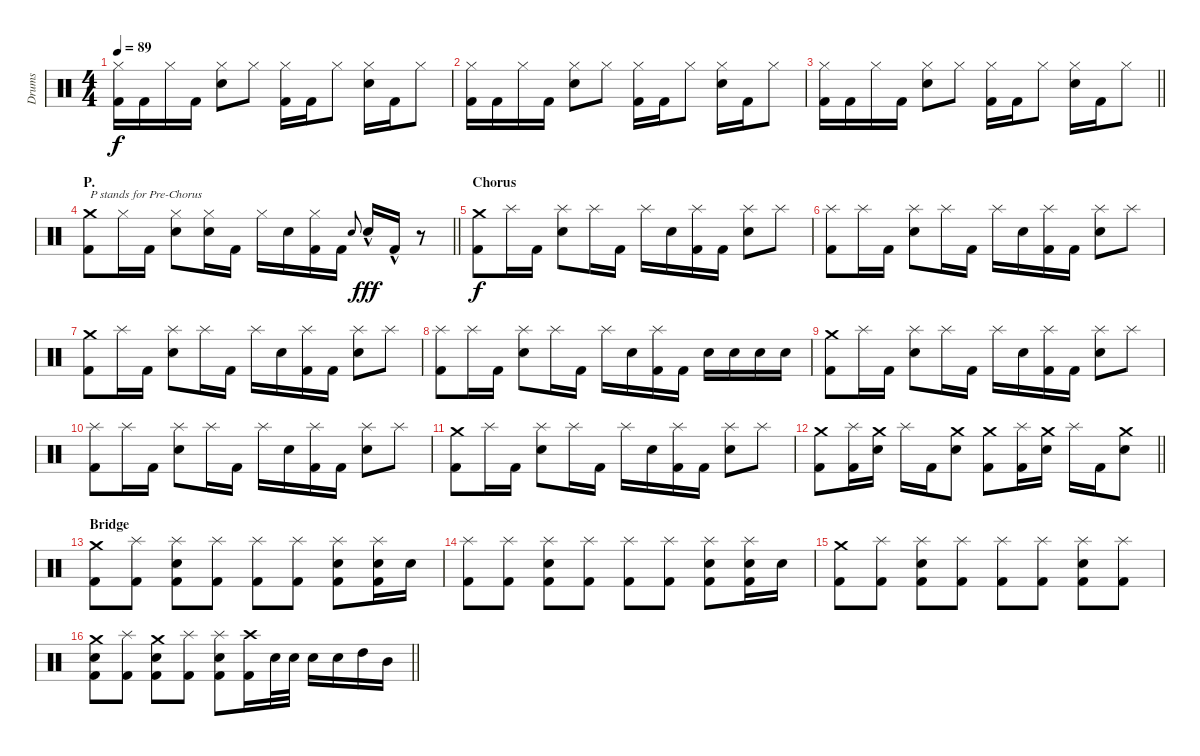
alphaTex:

\track ("Drums" "Drums") {instrument percussion}
\staff {score}
\articulation defaults
\ts (4 4)
\tempo 89
\clef neutral
\ks c
("Hi-Hat (closed)" "Kick (hit) 2").16{dy f} "Kick (hit) 2".16 "Hi-Hat (closed)".16 "Kick (hit) 2".16 ("Hi-Hat (closed)" "Electric Snare (hit)").8 "Hi-Hat (closed)".8 ("Hi-Hat (closed)" "Kick (hit) 2").16 "Kick (hit) 2".16 "Hi-Hat (closed)".8 ("Hi-Hat (closed)" "Electric Snare (hit)").16 "Kick (hit) 2".16 "Hi-Hat (closed)".8 |
("Hi-Hat (closed)" "Kick (hit) 2").16 "Kick (hit) 2".16 "Hi-Hat (closed)".16 "Kick (hit) 2".16 ("Hi-Hat (closed)" "Electric Snare (hit)").8 "Hi-Hat (closed)".8 ("Hi-Hat (closed)" "Kick (hit) 2").16 "Kick (hit) 2".16 "Hi-Hat (closed)".8 ("Hi-Hat (closed)" "Electric Snare (hit)").16 "Kick (hit) 2".16 "Hi-Hat (closed)".8 |
\barLineRight lightlight
("Hi-Hat (closed)" "Kick (hit) 2").16 "Kick (hit) 2".16 "Hi-Hat (closed)".16 "Kick (hit) 2".16 ("Hi-Hat (closed)" "Electric Snare (hit)").8 "Hi-Hat (closed)".8 ("Hi-Hat (closed)" "Kick (hit) 2").16 "Kick (hit) 2".16 "Hi-Hat (closed)".8 ("Hi-Hat (closed)" "Electric Snare (hit)").16 "Kick (hit) 2".16 "Hi-Hat (closed)".8 |
\section ("" "P.")
\barLineRight lightlight
("Crash medium (hit)" "Kick (hit) 2").8{txt "P stands for Pre-Chorus"} "Hi-Hat (closed)".16 "Kick (hit) 2".16 ("Hi-Hat (closed)" "Electric Snare (hit)").8 ("Hi-Hat (closed)" "Electric Snare (hit)").16 "Kick (hit) 2".16 "Hi-Hat (closed)".16 "Electric Snare (hit)".16 ("Hi-Hat (closed)" "Kick (hit) 2").16 "Kick (hit) 2".16 "Electric Snare (hit)".8{gr onbeat} "Electric Snare (hit)"{hac}.16{dy fff} "Kick (hit) 2"{hac}.16 r.8 |
\section ("" "Chorus")
("Crash medium (hit)" "Kick (hit) 2").8{dy f} "Splash (hit)".16 "Kick (hit) 2".16 ("Splash (hit)" "Electric Snare (hit)").8 "Splash (hit)".16 "Kick (hit) 2".16 "Splash (hit)".16 "Electric Snare (hit)".16 ("Splash (hit)" "Kick (hit) 2").16 "Kick (hit) 2".16 ("Splash (hit)" "Electric Snare (hit)").8 "Splash (hit)".8 |
("Splash (hit)" "Kick (hit) 2").8 "Splash (hit)".16 "Kick (hit) 2".16 ("Splash (hit)" "Electric Snare (hit)").8 "Splash (hit)".16 "Kick (hit) 2".16 "Splash (hit)".16 "Electric Snare (hit)".16 ("Splash (hit)" "Kick (hit) 2").16 "Kick (hit) 2".16 ("Splash (hit)" "Electric Snare (hit)").8 "Splash (hit)".8 |
("Crash medium (hit)" "Kick (hit) 2").8 "Splash (hit)".16 "Kick (hit) 2".16 ("Splash (hit)" "Electric Snare (hit)").8 "Splash (hit)".16 "Kick (hit) 2".16 "Splash (hit)".16 "Electric Snare (hit)".16 ("Splash (hit)" "Kick (hit) 2").16 "Kick (hit) 2".16 ("Splash (hit)" "Electric Snare (hit)").8 "Splash (hit)".8 |
("Splash (hit)" "Kick (hit) 2").8 "Splash (hit)".16 "Kick (hit) 2".16 ("Splash (hit)" "Electric Snare (hit)").8 "Splash (hit)".16 "Kick (hit) 2".16 "Splash (hit)".16 "Electric Snare (hit)".16 ("Splash (hit)" "Kick (hit) 2").16 "Kick (hit) 2".16 "Electric Snare (hit)".16 "Electric Snare (hit)".16 "Electric Snare (hit)".16 "Electric Snare (hit)".16 |
("Crash medium (hit)" "Kick (hit) 2").8 "Splash (hit)".16 "Kick (hit) 2".16 ("Splash (hit)" "Electric Snare (hit)").8 "Splash (hit)".16 "Kick (hit) 2".16 "Splash (hit)".16 "Electric Snare (hit)".16 ("Splash (hit)" "Kick (hit) 2").16 "Kick (hit) 2".16 ("Splash (hit)" "Electric Snare (hit)").8 "Splash (hit)".8 |
("Splash (hit)" "Kick (hit) 2").8 "Splash (hit)".16 "Kick (hit) 2".16 ("Splash (hit)" "Electric Snare (hit)").8 "Splash (hit)".16 "Kick (hit) 2".16 "Splash (hit)".16 "Electric Snare (hit)".16 ("Splash (hit)" "Kick (hit) 2").16 "Kick (hit) 2".16 ("Splash (hit)" "Electric Snare (hit)").8 "Splash (hit)".8 |
("Crash medium (hit)" "Kick (hit) 2").8 "Splash (hit)".16 "Kick (hit) 2".16 ("Splash (hit)" "Electric Snare (hit)").8 "Splash (hit)".16 "Kick (hit) 2".16 "Splash (hit)".16 "Electric Snare (hit)".16 ("Splash (hit)" "Kick (hit) 2").16 "Kick (hit) 2".16 ("Splash (hit)" "Electric Snare (hit)").8 "Splash (hit)".8 |
\barLineRight lightlight
("Crash medium (hit)" "Kick (hit) 2").8 ("Splash (hit)" "Kick (hit) 2").16 ("Crash medium (hit)" "Electric Snare (hit)").16 "Splash (hit)".16 "Kick (hit) 2".16 ("Crash medium (hit)" "Electric Snare (hit)").8 ("Crash medium (hit)" "Kick (hit) 2").8 ("Splash (hit)" "Kick (hit) 2").16 ("Crash medium (hit)" "Electric Snare (hit)").16 "Splash (hit)".16 "Kick (hit) 2".16 ("Crash medium (hit)" "Electric Snare (hit)").8 |
\section ("" "Bridge")
("Crash medium (hit)" "Kick (hit) 2").8 ("Splash (hit)" "Kick (hit) 2").8 ("Splash (hit)" "Electric Snare (hit)" "Kick (hit) 2").8 ("Splash (hit)" "Kick (hit) 2").8 ("Splash (hit)" "Kick (hit) 2").8 ("Splash (hit)" "Kick (hit) 2").8 ("Splash (hit)" "Electric Snare (hit)" "Kick (hit) 2").8 ("Splash (hit)" "Electric Snare (hit)" "Kick (hit) 2").16 "Electric Snare (hit)".16 |
("Splash (hit)" "Kick (hit) 2").8 ("Splash (hit)" "Kick (hit) 2").8 ("Splash (hit)" "Electric Snare (hit)" "Kick (hit) 2").8 ("Splash (hit)" "Kick (hit) 2").8 ("Splash (hit)" "Kick (hit) 2").8 ("Splash (hit)" "Kick (hit) 2").8 ("Splash (hit)" "Electric Snare (hit)" "Kick (hit) 2").8 ("Splash (hit)" "Electric Snare (hit)" "Kick (hit) 2").16 "Electric Snare (hit)".16 |
("Crash medium (hit)" "Kick (hit) 2").8 ("Splash (hit)" "Kick (hit) 2").8 ("Splash (hit)" "Electric Snare (hit)" "Kick (hit) 2").8 ("Splash (hit)" "Kick (hit) 2").8 ("Splash (hit)" "Kick (hit) 2").8 ("Splash (hit)" "Kick (hit) 2").8 ("Splash (hit)" "Electric Snare (hit)" "Kick (hit) 2").8 ("Splash (hit)" "Kick (hit) 2").8 |
\barLineRight lightlight
("Crash medium (hit)" "Electric Snare (hit)" "Kick (hit) 2").8 ("Splash (hit)" "Kick (hit) 2").8 ("Crash medium (hit)" "Electric Snare (hit)" "Kick (hit) 2").8 ("Splash (hit)" "Kick (hit) 2").8 ("Splash (hit)" "Electric Snare (hit)" "Kick (hit) 2").8 ("Crash high (hit)" "Kick (hit) 2").16 "Electric Snare (hit)".32 "Electric Snare (hit)".32 "Electric Snare (hit)".16 "Electric Snare (hit)".16 "High Tom (hit)".16 "Mid Tom (hit)".16
